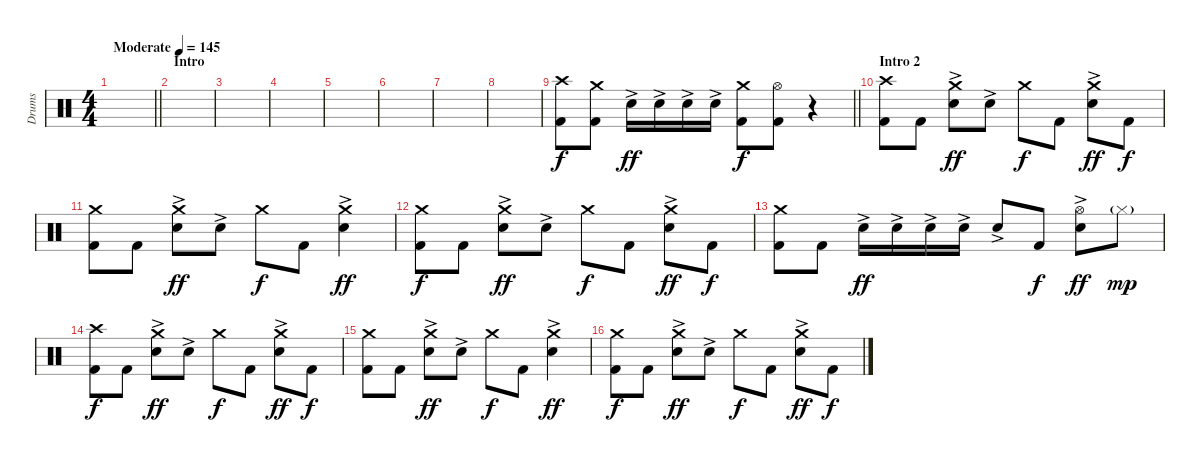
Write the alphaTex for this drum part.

\track ("Drums" "Drums") {instrument percussion}
\staff {score}
\articulation defaults
\ts (4 4)
\tempo (145 "Moderate")
\clef neutral
\barLineRight lightlight
\ks c
|
\section ("" "Intro")
|
|
|
|
|
|
|
\barLineRight lightlight
("Crash high (hit)" "Kick (hit) 2").8 ("Crash medium (hit)" "Kick (hit) 2").8 "Electric Snare (hit)"{ac}.16{dy ff} "Electric Snare (hit)"{ac}.16 "Electric Snare (hit)"{ac}.16 "Electric Snare (hit)"{ac}.16 ("Crash medium (hit)" "Kick (hit) 2").8{dy f} ("Hi-Hat (open)" "Kick (hit) 2").8 r.4 |
\section ("" "Intro 2")
("Crash high (hit)" "Kick (hit) 2").8 "Kick (hit) 2".8 ("Crash medium (hit)" "Electric Snare (hit)"{ac}).8{dy ff} "Electric Snare (hit)"{ac}.8 "Crash medium (hit)".8{dy f} "Kick (hit) 2".8 ("Crash medium (hit)" "Electric Snare (hit)"{ac}).8{dy ff} "Kick (hit) 2".8{dy f} |
("Crash medium (hit)" "Kick (hit) 2").8 "Kick (hit) 2".8 ("Crash medium (hit)" "Electric Snare (hit)"{ac}).8{dy ff} "Electric Snare (hit)"{ac}.8 "Crash medium (hit)".8{dy f} "Kick (hit) 2".8 ("Crash medium (hit)" "Electric Snare (hit)"{ac}).4{dy ff} |
("Crash medium (hit)" "Kick (hit) 2").8{dy f} "Kick (hit) 2".8 ("Crash medium (hit)" "Electric Snare (hit)"{ac}).8{dy ff} "Electric Snare (hit)"{ac}.8 "Crash medium (hit)".8{dy f} "Kick (hit) 2".8 ("Crash medium (hit)" "Electric Snare (hit)"{ac}).8{dy ff} "Kick (hit) 2".8{dy f} |
("Crash medium (hit)" "Kick (hit) 2").8 "Kick (hit) 2".8 "Electric Snare (hit)"{ac}.16{dy ff} "Electric Snare (hit)"{ac}.16 "Electric Snare (hit)"{ac}.16 "Electric Snare (hit)"{ac}.16 "Electric Snare (hit)"{ac}.8 "Kick (hit) 2".8{dy f} ("Hi-Hat (open)" "Electric Snare (hit)"{ac}).8{dy ff} "Hi-Hat (closed)"{g}.8{dy mp} |
("Crash high (hit)" "Kick (hit) 2").8{dy f} "Kick (hit) 2".8 ("Crash medium (hit)" "Electric Snare (hit)"{ac}).8{dy ff} "Electric Snare (hit)"{ac}.8 "Crash medium (hit)".8{dy f} "Kick (hit) 2".8 ("Crash medium (hit)" "Electric Snare (hit)"{ac}).8{dy ff} "Kick (hit) 2".8{dy f} |
("Crash medium (hit)" "Kick (hit) 2").8 "Kick (hit) 2".8 ("Crash medium (hit)" "Electric Snare (hit)"{ac}).8{dy ff} "Electric Snare (hit)"{ac}.8 "Crash medium (hit)".8{dy f} "Kick (hit) 2".8 ("Crash medium (hit)" "Electric Snare (hit)"{ac}).4{dy ff} |
("Crash medium (hit)" "Kick (hit) 2").8{dy f} "Kick (hit) 2".8 ("Crash medium (hit)" "Electric Snare (hit)"{ac}).8{dy ff} "Electric Snare (hit)"{ac}.8 "Crash medium (hit)".8{dy f} "Kick (hit) 2".8 ("Crash medium (hit)" "Electric Snare (hit)"{ac}).8{dy ff} "Kick (hit) 2".8{dy f}
